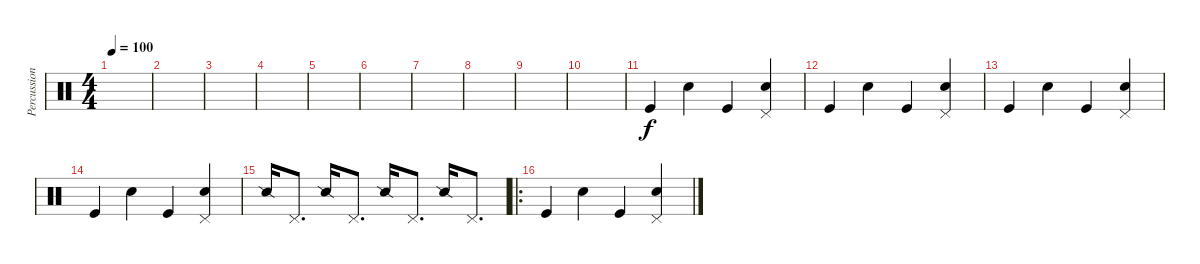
\track ("Percussion" "Percussion") {instrument percussion}
\staff {score}
\articulation defaults
\ts (4 4)
\tempo 100
\clef neutral
\ks c
|
|
|
|
|
|
|
|
|
|
"Kick (hit)".4 "Snare (hit) 2".4 "Kick (hit)".4 ("Pedal Hi-Hat (hit)" "Snare (hit) 2").4 |
"Kick (hit)".4 "Snare (hit) 2".4 "Kick (hit)".4 ("Pedal Hi-Hat (hit)" "Snare (hit) 2").4 |
"Kick (hit)".4 "Snare (hit) 2".4 "Kick (hit)".4 ("Pedal Hi-Hat (hit)" "Snare (hit) 2").4 |
"Kick (hit)".4 "Snare (hit) 2".4 "Kick (hit)".4 ("Pedal Hi-Hat (hit)" "Snare (hit) 2").4 |
"Snare (side stick) 2".16 "Pedal Hi-Hat (hit)".8{d} "Snare (side stick) 2".16 "Pedal Hi-Hat (hit)".8{d} "Snare (side stick) 2".16 "Pedal Hi-Hat (hit)".8{d} "Snare (side stick) 2".16 "Pedal Hi-Hat (hit)".8{d} |
\ro "Kick (hit)".4 "Snare (hit) 2".4 "Kick (hit)".4
("Pedal Hi-Hat (hit)" "Snare (hit) 2").4
